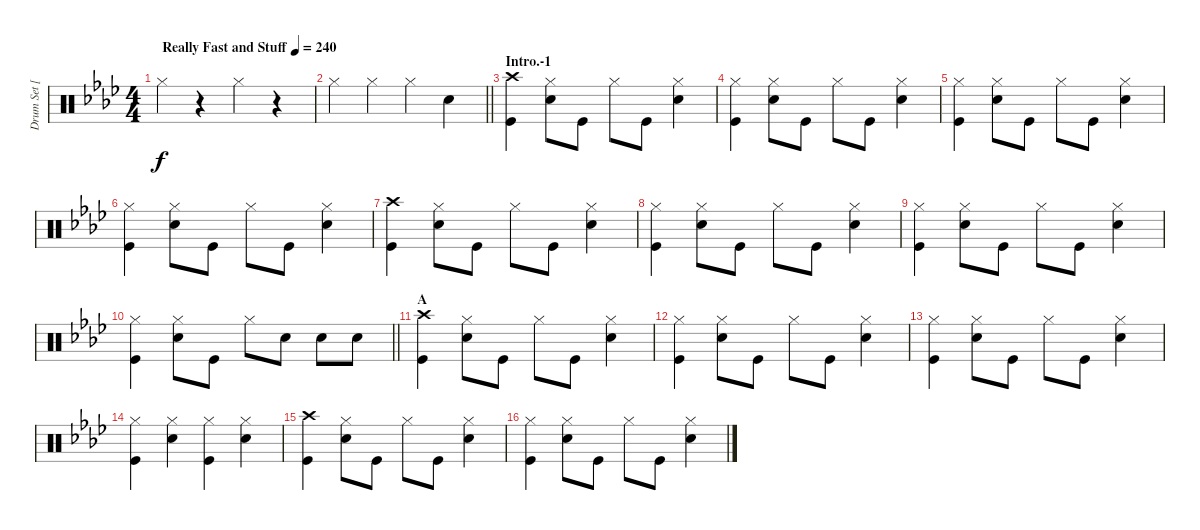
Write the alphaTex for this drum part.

\track ("Drum Set [Ritsu]" "Drum Set [") {instrument percussion}
\staff {score}
\articulation defaults
\ts (4 4)
\tempo (240 "Really Fast and Stuff")
\clef neutral
\ks ab "Hi-Hat (closed)".4{dy f}
r.4 "Hi-Hat (closed)".4 r.4 |
\barLineRight lightlight "Hi-Hat (closed)".4 "Hi-Hat (closed)".4 "Hi-Hat (closed)".4 "Snare (hit) 2".4
|
\section ("" "Intro.-1")
("Crash high (hit)" "Kick (hit)").4 ("Hi-Hat (closed)" "Snare (hit) 2").8 "Kick (hit)".8 "Hi-Hat (closed)".8 "Kick (hit)".8 ("Hi-Hat (closed)" "Snare (hit) 2").4 |
("Hi-Hat (closed)" "Kick (hit)").4 ("Hi-Hat (closed)" "Snare (hit) 2").8 "Kick (hit)".8 "Hi-Hat (closed)".8 "Kick (hit)".8 ("Hi-Hat (closed)" "Snare (hit) 2").4 |
("Hi-Hat (closed)" "Kick (hit)").4 ("Hi-Hat (closed)" "Snare (hit) 2").8 "Kick (hit)".8 "Hi-Hat (closed)".8 "Kick (hit)".8 ("Hi-Hat (closed)" "Snare (hit) 2").4 |
("Hi-Hat (closed)" "Kick (hit)").4 ("Hi-Hat (closed)" "Snare (hit) 2").8 "Kick (hit)".8 "Hi-Hat (closed)".8 "Kick (hit)".8 ("Hi-Hat (closed)" "Snare (hit) 2").4 |
("Crash high (hit)" "Kick (hit)").4 ("Hi-Hat (closed)" "Snare (hit) 2").8 "Kick (hit)".8 "Hi-Hat (closed)".8 "Kick (hit)".8 ("Hi-Hat (closed)" "Snare (hit) 2").4 |
("Hi-Hat (closed)" "Kick (hit)").4 ("Hi-Hat (closed)" "Snare (hit) 2").8 "Kick (hit)".8 "Hi-Hat (closed)".8 "Kick (hit)".8 ("Hi-Hat (closed)" "Snare (hit) 2").4 |
("Hi-Hat (closed)" "Kick (hit)").4 ("Hi-Hat (closed)" "Snare (hit) 2").8 "Kick (hit)".8 "Hi-Hat (closed)".8 "Kick (hit)".8 ("Hi-Hat (closed)" "Snare (hit) 2").4 |
\barLineRight lightlight
("Hi-Hat (closed)" "Kick (hit)").4 ("Hi-Hat (closed)" "Snare (hit) 2").8 "Kick (hit)".8 "Hi-Hat (closed)".8 "Snare (hit) 2".8 "Snare (hit) 2".8 "Snare (hit) 2".8 |
\section ("" "A")
("Crash high (hit)" "Kick (hit)").4 ("Hi-Hat (closed)" "Snare (hit) 2").8 "Kick (hit)".8 "Hi-Hat (closed)".8 "Kick (hit)".8 ("Hi-Hat (closed)" "Snare (hit) 2").4 |
("Hi-Hat (closed)" "Kick (hit)").4 ("Hi-Hat (closed)" "Snare (hit) 2").8 "Kick (hit)".8 "Hi-Hat (closed)".8 "Kick (hit)".8 ("Hi-Hat (closed)" "Snare (hit) 2").4 |
("Hi-Hat (closed)" "Kick (hit)").4 ("Hi-Hat (closed)" "Snare (hit) 2").8 "Kick (hit)".8 "Hi-Hat (closed)".8 "Kick (hit)".8 ("Hi-Hat (closed)" "Snare (hit) 2").4 |
("Hi-Hat (closed)" "Kick (hit)").4 ("Hi-Hat (closed)" "Snare (hit) 2").4 ("Hi-Hat (closed)" "Kick (hit)").4 ("Hi-Hat (closed)" "Snare (hit) 2").4 |
("Crash high (hit)" "Kick (hit)").4 ("Hi-Hat (closed)" "Snare (hit) 2").8 "Kick (hit)".8 "Hi-Hat (closed)".8 "Kick (hit)".8 ("Hi-Hat (closed)" "Snare (hit) 2").4 |
("Hi-Hat (closed)" "Kick (hit)").4 ("Hi-Hat (closed)" "Snare (hit) 2").8 "Kick (hit)".8 "Hi-Hat (closed)".8 "Kick (hit)".8 ("Hi-Hat (closed)" "Snare (hit) 2").4
